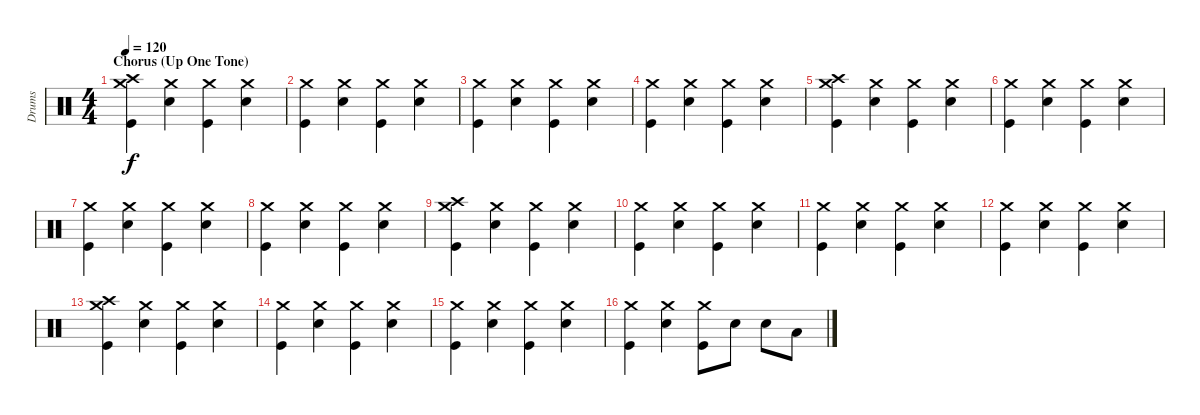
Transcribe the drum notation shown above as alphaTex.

\track ("Drums" "Drums") {instrument percussion}
\staff {score}
\articulation defaults
\ts (4 4)
\section ("" "Chorus (Up One Tone)")
\tempo 120
\clef neutral
\ks c
("Crash high (hit)" "Crash medium (hit)" "Kick (hit)").4{dy f} ("Crash medium (hit)" "Electric Snare (hit)").4 ("Crash medium (hit)" "Kick (hit)").4 ("Crash medium (hit)" "Electric Snare (hit)").4 |
("Crash medium (hit)" "Kick (hit)").4 ("Crash medium (hit)" "Electric Snare (hit)").4 ("Crash medium (hit)" "Kick (hit)").4 ("Crash medium (hit)" "Electric Snare (hit)").4 |
("Crash medium (hit)" "Kick (hit)").4 ("Crash medium (hit)" "Electric Snare (hit)").4 ("Crash medium (hit)" "Kick (hit)").4 ("Crash medium (hit)" "Electric Snare (hit)").4 |
("Crash medium (hit)" "Kick (hit)").4 ("Crash medium (hit)" "Electric Snare (hit)").4 ("Crash medium (hit)" "Kick (hit)").4 ("Crash medium (hit)" "Electric Snare (hit)").4 |
("Crash high (hit)" "Crash medium (hit)" "Kick (hit)").4 ("Crash medium (hit)" "Electric Snare (hit)").4 ("Crash medium (hit)" "Kick (hit)").4 ("Crash medium (hit)" "Electric Snare (hit)").4 |
("Crash medium (hit)" "Kick (hit)").4 ("Crash medium (hit)" "Electric Snare (hit)").4 ("Crash medium (hit)" "Kick (hit)").4 ("Crash medium (hit)" "Electric Snare (hit)").4 |
("Crash medium (hit)" "Kick (hit)").4 ("Crash medium (hit)" "Electric Snare (hit)").4 ("Crash medium (hit)" "Kick (hit)").4 ("Crash medium (hit)" "Electric Snare (hit)").4 |
("Crash medium (hit)" "Kick (hit)").4 ("Crash medium (hit)" "Electric Snare (hit)").4 ("Crash medium (hit)" "Kick (hit)").4 ("Crash medium (hit)" "Electric Snare (hit)").4 |
("Crash high (hit)" "Crash medium (hit)" "Kick (hit)").4 ("Crash medium (hit)" "Electric Snare (hit)").4 ("Crash medium (hit)" "Kick (hit)").4 ("Crash medium (hit)" "Electric Snare (hit)").4 |
("Crash medium (hit)" "Kick (hit)").4 ("Crash medium (hit)" "Electric Snare (hit)").4 ("Crash medium (hit)" "Kick (hit)").4 ("Crash medium (hit)" "Electric Snare (hit)").4 |
("Crash medium (hit)" "Kick (hit)").4 ("Crash medium (hit)" "Electric Snare (hit)").4 ("Crash medium (hit)" "Kick (hit)").4 ("Crash medium (hit)" "Electric Snare (hit)").4 |
("Crash medium (hit)" "Kick (hit)").4 ("Crash medium (hit)" "Electric Snare (hit)").4 ("Crash medium (hit)" "Kick (hit)").4 ("Crash medium (hit)" "Electric Snare (hit)").4 |
("Crash high (hit)" "Crash medium (hit)" "Kick (hit)").4 ("Crash medium (hit)" "Electric Snare (hit)").4 ("Crash medium (hit)" "Kick (hit)").4 ("Crash medium (hit)" "Electric Snare (hit)").4 |
("Crash medium (hit)" "Kick (hit)").4 ("Crash medium (hit)" "Electric Snare (hit)").4 ("Crash medium (hit)" "Kick (hit)").4 ("Crash medium (hit)" "Electric Snare (hit)").4 |
("Crash medium (hit)" "Kick (hit)").4 ("Crash medium (hit)" "Electric Snare (hit)").4 ("Crash medium (hit)" "Kick (hit)").4 ("Crash medium (hit)" "Electric Snare (hit)").4 |
("Crash medium (hit)" "Kick (hit)").4 ("Crash medium (hit)" "Electric Snare (hit)").4 ("Crash medium (hit)" "Kick (hit)").8 "Electric Snare (hit)".8 "Electric Snare (hit)".8 "Low Tom (hit)".8
